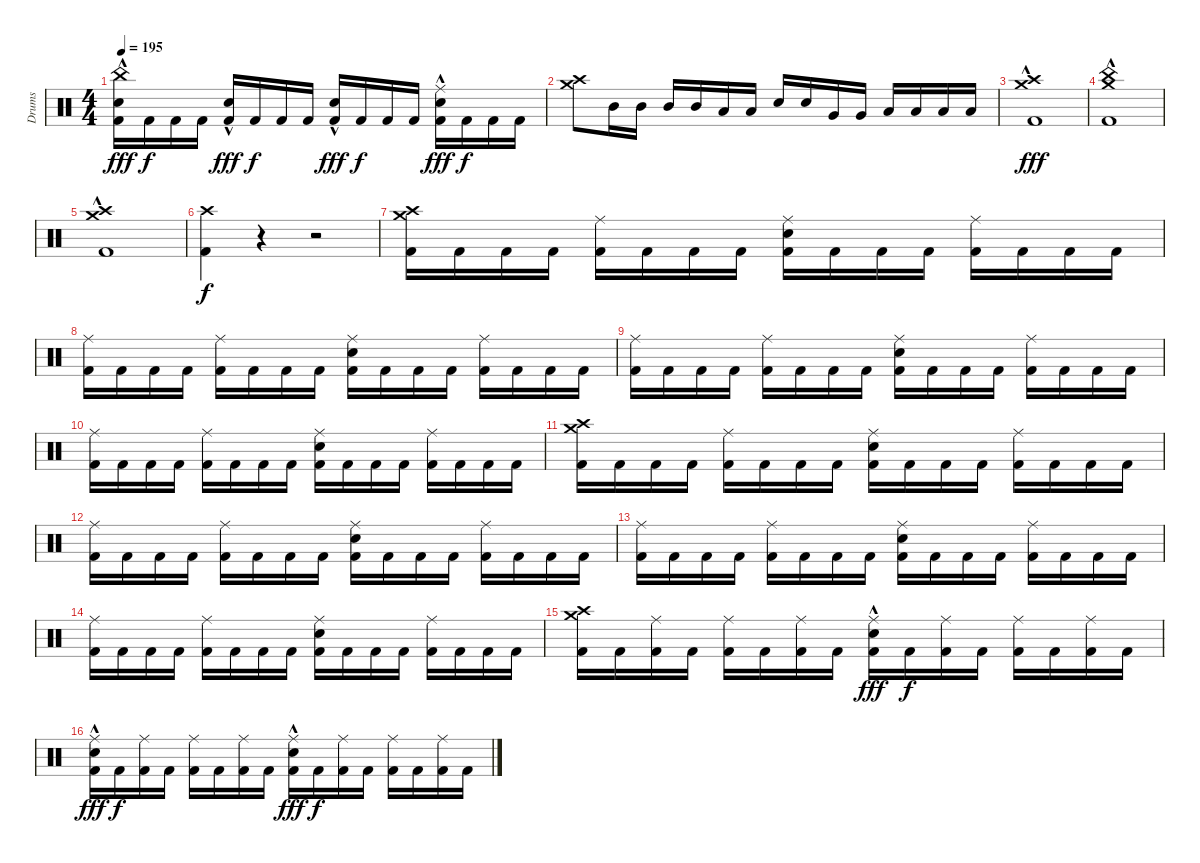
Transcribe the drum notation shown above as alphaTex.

\track ("Drums" "Drums") {instrument percussion}
\staff {score}
\articulation defaults
\ts (4 4)
\tempo 195
\clef neutral
\ks c
("Electric Snare (hit)"{hac} "Kick (hit) 2" "China (hit)"{hac}).16{dy fff} "Kick (hit) 2".16{dy f} "Kick (hit) 2".16 "Kick (hit) 2".16 ("Electric Snare (hit)"{hac} "Kick (hit) 2").16{dy fff} "Kick (hit) 2".16{dy f} "Kick (hit) 2".16 "Kick (hit) 2".16 ("Electric Snare (hit)"{hac} "Kick (hit) 2").16{dy fff} "Kick (hit) 2".16{dy f} "Kick (hit) 2".16 "Kick (hit) 2".16 ("Electric Snare (hit)"{hac} "Kick (hit) 2" "Ride (middle)").16{dy fff} "Kick (hit) 2".16{dy f} "Kick (hit) 2".16 "Kick (hit) 2".16 |
("Crash high (hit)" "Crash medium (hit)").8 "Mid Tom (hit)".16 "Mid Tom (hit)".16 "Mid Tom (hit)".16 "Mid Tom (hit)".16 "Low Tom (hit)".16 "Low Tom (hit)".16 "Electric Snare (hit)".16 "Electric Snare (hit)".16 "Very Low Tom (hit)".16 "Very Low Tom (hit)".16 "Low Floor Tom (hit)".16 "Low Floor Tom (hit)".16 "Low Floor Tom (hit)".16 "Low Floor Tom (hit)".16 |
("Crash high (hit)" "Crash medium (hit)" "Kick (hit) 2"{hac}).1{dy fff} |
("China (hit)" "Crash medium (hit)" "Kick (hit) 2"{hac}).1 |
("Crash high (hit)" "Crash medium (hit)" "Kick (hit) 2"{hac}).1 |
("Crash high (hit)" "Kick (hit) 2").4{dy f} r.4{volume 0} r.2 |
("Crash high (hit)" "Kick (hit) 2" "Crash medium (hit)").16{volume 16} "Kick (hit) 2".16 "Kick (hit) 2".16 "Kick (hit) 2".16 ("Ride (middle)" "Kick (hit) 2").16 "Kick (hit) 2".16 "Kick (hit) 2".16 "Kick (hit) 2".16 ("Ride (middle)" "Kick (hit) 2" "Electric Snare (hit)").16 "Kick (hit) 2".16 "Kick (hit) 2".16 "Kick (hit) 2".16 ("Ride (middle)" "Kick (hit) 2").16 "Kick (hit) 2".16 "Kick (hit) 2".16 "Kick (hit) 2".16 |
("Ride (middle)" "Kick (hit) 2").16 "Kick (hit) 2".16 "Kick (hit) 2".16 "Kick (hit) 2".16 ("Ride (middle)" "Kick (hit) 2").16 "Kick (hit) 2".16 "Kick (hit) 2".16 "Kick (hit) 2".16 ("Ride (middle)" "Kick (hit) 2" "Electric Snare (hit)").16 "Kick (hit) 2".16 "Kick (hit) 2".16 "Kick (hit) 2".16 ("Ride (middle)" "Kick (hit) 2").16 "Kick (hit) 2".16 "Kick (hit) 2".16 "Kick (hit) 2".16 |
("Ride (middle)" "Kick (hit) 2").16 "Kick (hit) 2".16 "Kick (hit) 2".16 "Kick (hit) 2".16 ("Ride (middle)" "Kick (hit) 2").16 "Kick (hit) 2".16 "Kick (hit) 2".16 "Kick (hit) 2".16 ("Ride (middle)" "Kick (hit) 2" "Electric Snare (hit)").16 "Kick (hit) 2".16 "Kick (hit) 2".16 "Kick (hit) 2".16 ("Ride (middle)" "Kick (hit) 2").16 "Kick (hit) 2".16 "Kick (hit) 2".16 "Kick (hit) 2".16 |
("Ride (middle)" "Kick (hit) 2").16 "Kick (hit) 2".16 "Kick (hit) 2".16 "Kick (hit) 2".16 ("Ride (middle)" "Kick (hit) 2").16 "Kick (hit) 2".16 "Kick (hit) 2".16 "Kick (hit) 2".16 ("Ride (middle)" "Kick (hit) 2" "Electric Snare (hit)").16 "Kick (hit) 2".16 "Kick (hit) 2".16 "Kick (hit) 2".16 ("Ride (middle)" "Kick (hit) 2").16 "Kick (hit) 2".16 "Kick (hit) 2".16 "Kick (hit) 2".16 |
("Crash high (hit)" "Kick (hit) 2" "Crash medium (hit)").16 "Kick (hit) 2".16 "Kick (hit) 2".16 "Kick (hit) 2".16 ("Ride (middle)" "Kick (hit) 2").16 "Kick (hit) 2".16 "Kick (hit) 2".16 "Kick (hit) 2".16 ("Ride (middle)" "Kick (hit) 2" "Electric Snare (hit)").16 "Kick (hit) 2".16 "Kick (hit) 2".16 "Kick (hit) 2".16 ("Ride (middle)" "Kick (hit) 2").16 "Kick (hit) 2".16 "Kick (hit) 2".16 "Kick (hit) 2".16 |
("Ride (middle)" "Kick (hit) 2").16 "Kick (hit) 2".16 "Kick (hit) 2".16 "Kick (hit) 2".16 ("Ride (middle)" "Kick (hit) 2").16 "Kick (hit) 2".16 "Kick (hit) 2".16 "Kick (hit) 2".16 ("Ride (middle)" "Kick (hit) 2" "Electric Snare (hit)").16 "Kick (hit) 2".16 "Kick (hit) 2".16 "Kick (hit) 2".16 ("Ride (middle)" "Kick (hit) 2").16 "Kick (hit) 2".16 "Kick (hit) 2".16 "Kick (hit) 2".16 |
("Ride (middle)" "Kick (hit) 2").16 "Kick (hit) 2".16 "Kick (hit) 2".16 "Kick (hit) 2".16 ("Ride (middle)" "Kick (hit) 2").16 "Kick (hit) 2".16 "Kick (hit) 2".16 "Kick (hit) 2".16 ("Ride (middle)" "Kick (hit) 2" "Electric Snare (hit)").16 "Kick (hit) 2".16 "Kick (hit) 2".16 "Kick (hit) 2".16 ("Ride (middle)" "Kick (hit) 2").16 "Kick (hit) 2".16 "Kick (hit) 2".16 "Kick (hit) 2".16 |
("Ride (middle)" "Kick (hit) 2").16 "Kick (hit) 2".16 "Kick (hit) 2".16 "Kick (hit) 2".16 ("Ride (middle)" "Kick (hit) 2").16 "Kick (hit) 2".16 "Kick (hit) 2".16 "Kick (hit) 2".16 ("Ride (middle)" "Kick (hit) 2" "Electric Snare (hit)").16 "Kick (hit) 2".16 "Kick (hit) 2".16 "Kick (hit) 2".16 ("Ride (middle)" "Kick (hit) 2").16 "Kick (hit) 2".16 "Kick (hit) 2".16 "Kick (hit) 2".16 |
("Crash high (hit)" "Kick (hit) 2" "Crash medium (hit)").16 "Kick (hit) 2".16 ("Ride (middle)" "Kick (hit) 2").16 "Kick (hit) 2".16 ("Ride (middle)" "Kick (hit) 2").16 "Kick (hit) 2".16 ("Ride (middle)" "Kick (hit) 2").16 "Kick (hit) 2".16 ("Ride (middle)" "Kick (hit) 2" "Electric Snare (hit)"{hac}).16{dy fff} "Kick (hit) 2".16{dy f} ("Ride (middle)" "Kick (hit) 2").16 "Kick (hit) 2".16 ("Ride (middle)" "Kick (hit) 2").16 "Kick (hit) 2".16 ("Ride (middle)" "Kick (hit) 2").16 "Kick (hit) 2".16 |
("Ride (middle)" "Kick (hit) 2" "Electric Snare (hit)"{hac}).16{dy fff} "Kick (hit) 2".16{dy f} ("Ride (middle)" "Kick (hit) 2").16 "Kick (hit) 2".16 ("Ride (middle)" "Kick (hit) 2").16 "Kick (hit) 2".16 ("Ride (middle)" "Kick (hit) 2").16 "Kick (hit) 2".16 ("Ride (middle)" "Kick (hit) 2" "Electric Snare (hit)"{hac}).16{dy fff} "Kick (hit) 2".16{dy f} ("Ride (middle)" "Kick (hit) 2").16 "Kick (hit) 2".16 ("Ride (middle)" "Kick (hit) 2").16 "Kick (hit) 2".16 ("Ride (middle)" "Kick (hit) 2").16 "Kick (hit) 2".16
